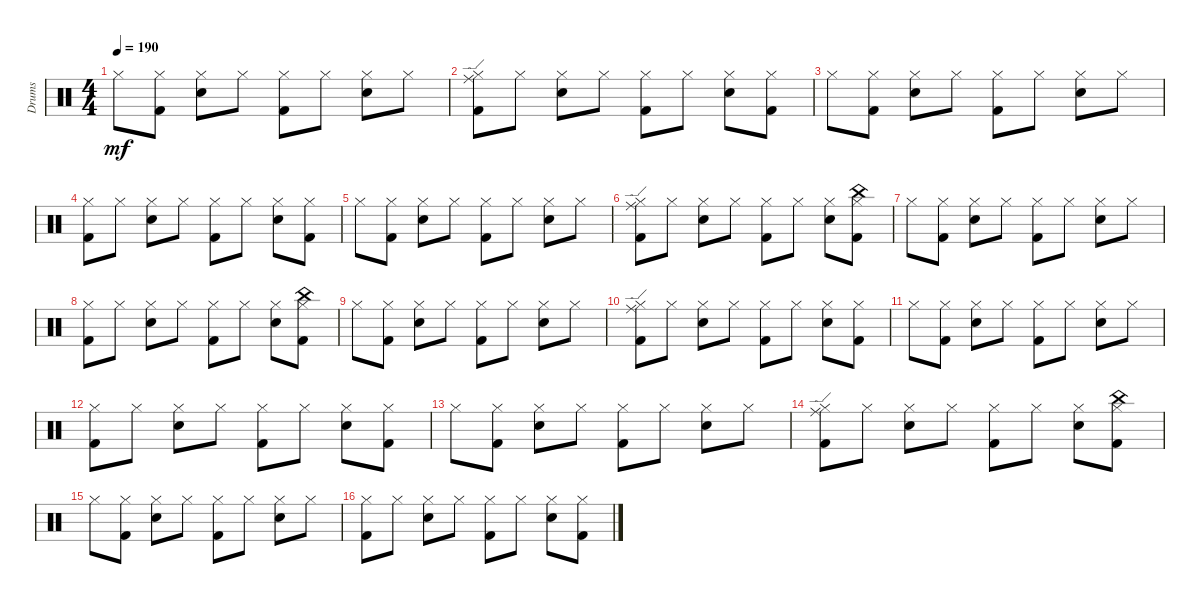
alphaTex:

\defaultSystemsLayout 4
\bracketExtendMode groupsimilarinstruments
\otherSystemsTrackNameOrientation horizontal
\track ("Prakarsh" "Drums") {instrument percussion}
\staff {score}
\articulation defaults
\ts (4 4)
\tempo 190
\clef neutral
\ks c "Hi-Hat (closed)".8{dy mf beam Down}
("Hi-Hat (closed)" "Kick (hit) 2").8{beam Down} ("Hi-Hat (closed)" "Snare (hit) 2").8{beam Down} "Hi-Hat (closed)".8{beam Down} ("Hi-Hat (closed)" "Kick (hit) 2").8{beam Down} "Hi-Hat (closed)".8{beam Down} ("Hi-Hat (closed)" "Snare (hit) 2").8{beam Down} "Hi-Hat (closed)".8{beam Down} |
("Kick (hit) 2" "Hi-Hat (closed)" "Ride (edge)").8{beam Down} "Hi-Hat (closed)".8{beam Down} ("Hi-Hat (closed)" "Snare (hit) 2").8{beam Down} "Hi-Hat (closed)".8{beam Down} ("Hi-Hat (closed)" "Kick (hit) 2").8{beam Down} "Hi-Hat (closed)".8{beam Down} ("Hi-Hat (closed)" "Snare (hit) 2").8{beam Down} ("Hi-Hat (closed)" "Kick (hit) 2").8{beam Down} |
"Hi-Hat (closed)".8{beam Down} ("Hi-Hat (closed)" "Kick (hit) 2").8{beam Down} ("Hi-Hat (closed)" "Snare (hit) 2").8{beam Down} "Hi-Hat (closed)".8{beam Down} ("Hi-Hat (closed)" "Kick (hit) 2").8{beam Down} "Hi-Hat (closed)".8{beam Down} ("Hi-Hat (closed)" "Snare (hit) 2").8{beam Down} "Hi-Hat (closed)".8{beam Down} |
("Kick (hit) 2" "Hi-Hat (closed)").8{beam Down} "Hi-Hat (closed)".8{beam Down} ("Hi-Hat (closed)" "Snare (hit) 2").8{beam Down} "Hi-Hat (closed)".8{beam Down} ("Hi-Hat (closed)" "Kick (hit) 2").8{beam Down} "Hi-Hat (closed)".8{beam Down} ("Hi-Hat (closed)" "Snare (hit) 2").8{beam Down} ("Hi-Hat (closed)" "Kick (hit) 2").8{beam Down} |
"Hi-Hat (closed)".8{beam Down} ("Hi-Hat (closed)" "Kick (hit) 2").8{beam Down} ("Hi-Hat (closed)" "Snare (hit) 2").8{beam Down} "Hi-Hat (closed)".8{beam Down} ("Hi-Hat (closed)" "Kick (hit) 2").8{beam Down} "Hi-Hat (closed)".8{beam Down} ("Hi-Hat (closed)" "Snare (hit) 2").8{beam Down} "Hi-Hat (closed)".8{beam Down} |
("Kick (hit) 2" "Hi-Hat (closed)" "Ride (edge)").8{beam Down} "Hi-Hat (closed)".8{beam Down} ("Hi-Hat (closed)" "Snare (hit) 2").8{beam Down} "Hi-Hat (closed)".8{beam Down} ("Hi-Hat (closed)" "Kick (hit) 2").8{beam Down} "Hi-Hat (closed)".8{beam Down} ("Hi-Hat (closed)" "Snare (hit) 2").8{beam Down} ("Hi-Hat (closed)" "Kick (hit) 2" "China (hit)").8{beam Down} |
"Hi-Hat (closed)".8{beam Down} ("Hi-Hat (closed)" "Kick (hit) 2").8{beam Down} ("Hi-Hat (closed)" "Snare (hit) 2").8{beam Down} "Hi-Hat (closed)".8{beam Down} ("Hi-Hat (closed)" "Kick (hit) 2").8{beam Down} "Hi-Hat (closed)".8{beam Down} ("Hi-Hat (closed)" "Snare (hit) 2").8{beam Down} "Hi-Hat (closed)".8{beam Down} |
("Kick (hit) 2" "Hi-Hat (closed)").8{beam Down} "Hi-Hat (closed)".8{beam Down} ("Hi-Hat (closed)" "Snare (hit) 2").8{beam Down} "Hi-Hat (closed)".8{beam Down} ("Hi-Hat (closed)" "Kick (hit) 2").8{beam Down} "Hi-Hat (closed)".8{beam Down} ("Hi-Hat (closed)" "Snare (hit) 2").8{beam Down} ("Hi-Hat (closed)" "Kick (hit) 2" "China (hit)").8{beam Down} |
"Hi-Hat (closed)".8{beam Down} ("Hi-Hat (closed)" "Kick (hit) 2").8{beam Down} ("Hi-Hat (closed)" "Snare (hit) 2").8{beam Down} "Hi-Hat (closed)".8{beam Down} ("Hi-Hat (closed)" "Kick (hit) 2").8{beam Down} "Hi-Hat (closed)".8{beam Down} ("Hi-Hat (closed)" "Snare (hit) 2").8{beam Down} "Hi-Hat (closed)".8{beam Down} |
("Kick (hit) 2" "Hi-Hat (closed)" "Ride (edge)").8{beam Down} "Hi-Hat (closed)".8{beam Down} ("Hi-Hat (closed)" "Snare (hit) 2").8{beam Down} "Hi-Hat (closed)".8{beam Down} ("Hi-Hat (closed)" "Kick (hit) 2").8{beam Down} "Hi-Hat (closed)".8{beam Down} ("Hi-Hat (closed)" "Snare (hit) 2").8{beam Down} ("Hi-Hat (closed)" "Kick (hit) 2").8{beam Down} |
"Hi-Hat (closed)".8{beam Down} ("Hi-Hat (closed)" "Kick (hit) 2").8{beam Down} ("Hi-Hat (closed)" "Snare (hit) 2").8{beam Down} "Hi-Hat (closed)".8{beam Down} ("Hi-Hat (closed)" "Kick (hit) 2").8{beam Down} "Hi-Hat (closed)".8{beam Down} ("Hi-Hat (closed)" "Snare (hit) 2").8{beam Down} "Hi-Hat (closed)".8{beam Down} |
("Kick (hit) 2" "Hi-Hat (closed)").8{beam Down} "Hi-Hat (closed)".8{beam Down} ("Hi-Hat (closed)" "Snare (hit) 2").8{beam Down} "Hi-Hat (closed)".8{beam Down} ("Hi-Hat (closed)" "Kick (hit) 2").8{beam Down} "Hi-Hat (closed)".8{beam Down} ("Hi-Hat (closed)" "Snare (hit) 2").8{beam Down} ("Hi-Hat (closed)" "Kick (hit) 2").8{beam Down} |
"Hi-Hat (closed)".8{beam Down} ("Hi-Hat (closed)" "Kick (hit) 2").8{beam Down} ("Hi-Hat (closed)" "Snare (hit) 2").8{beam Down} "Hi-Hat (closed)".8{beam Down} ("Hi-Hat (closed)" "Kick (hit) 2").8{beam Down} "Hi-Hat (closed)".8{beam Down} ("Hi-Hat (closed)" "Snare (hit) 2").8{beam Down} "Hi-Hat (closed)".8{beam Down} |
("Kick (hit) 2" "Hi-Hat (closed)" "Ride (edge)").8{beam Down} "Hi-Hat (closed)".8{beam Down} ("Hi-Hat (closed)" "Snare (hit) 2").8{beam Down} "Hi-Hat (closed)".8{beam Down} ("Hi-Hat (closed)" "Kick (hit) 2").8{beam Down} "Hi-Hat (closed)".8{beam Down} ("Hi-Hat (closed)" "Snare (hit) 2").8{beam Down} ("Hi-Hat (closed)" "Kick (hit) 2" "China (hit)").8{beam Down} |
"Hi-Hat (closed)".8{beam Down} ("Hi-Hat (closed)" "Kick (hit) 2").8{beam Down} ("Hi-Hat (closed)" "Snare (hit) 2").8{beam Down} "Hi-Hat (closed)".8{beam Down} ("Hi-Hat (closed)" "Kick (hit) 2").8{beam Down} "Hi-Hat (closed)".8{beam Down} ("Hi-Hat (closed)" "Snare (hit) 2").8{beam Down} "Hi-Hat (closed)".8{beam Down} |
("Kick (hit) 2" "Hi-Hat (closed)").8{beam Down} "Hi-Hat (closed)".8{beam Down} ("Hi-Hat (closed)" "Snare (hit) 2").8{beam Down} "Hi-Hat (closed)".8{beam Down} ("Hi-Hat (closed)" "Kick (hit) 2").8{beam Down} "Hi-Hat (closed)".8{beam Down} ("Hi-Hat (closed)" "Snare (hit) 2").8{beam Down} ("Hi-Hat (closed)" "Kick (hit) 2").8{beam Down}
